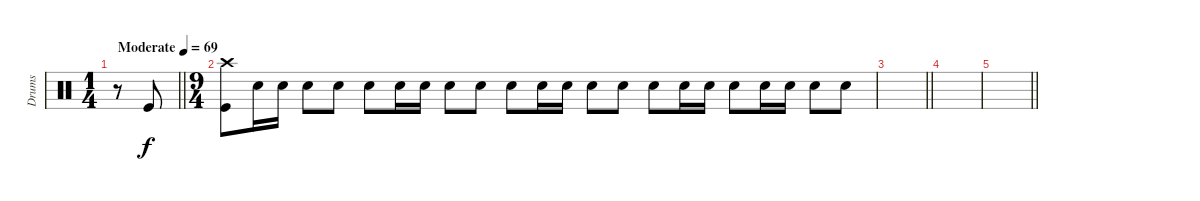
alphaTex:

\track ("Drums" "Drums") {instrument percussion}
\staff
\articulation defaults
\ts (1 4)
\tempo (69 "Moderate")
\clef neutral
\barLineRight lightlight
\ks c
r.8{dy f} "Kick (hit)".8 |
\ts (9 4)
("Crash high (hit)" "Kick (hit)").8 "Electric Snare (hit)".16 "Electric Snare (hit)".16 "Electric Snare (hit)".8 "Electric Snare (hit)".8 "Electric Snare (hit)".8 "Electric Snare (hit)".16 "Electric Snare (hit)".16 "Electric Snare (hit)".8 "Electric Snare (hit)".8 "Electric Snare (hit)".8 "Electric Snare (hit)".16 "Electric Snare (hit)".16 "Electric Snare (hit)".8 "Electric Snare (hit)".8 "Electric Snare (hit)".8 "Electric Snare (hit)".16 "Electric Snare (hit)".16 "Electric Snare (hit)".8 "Electric Snare (hit)".16 "Electric Snare (hit)".16 "Electric Snare (hit)".8 "Electric Snare (hit)".8 |
\barLineRight lightlight
|
|
\barLineRight lightlight
